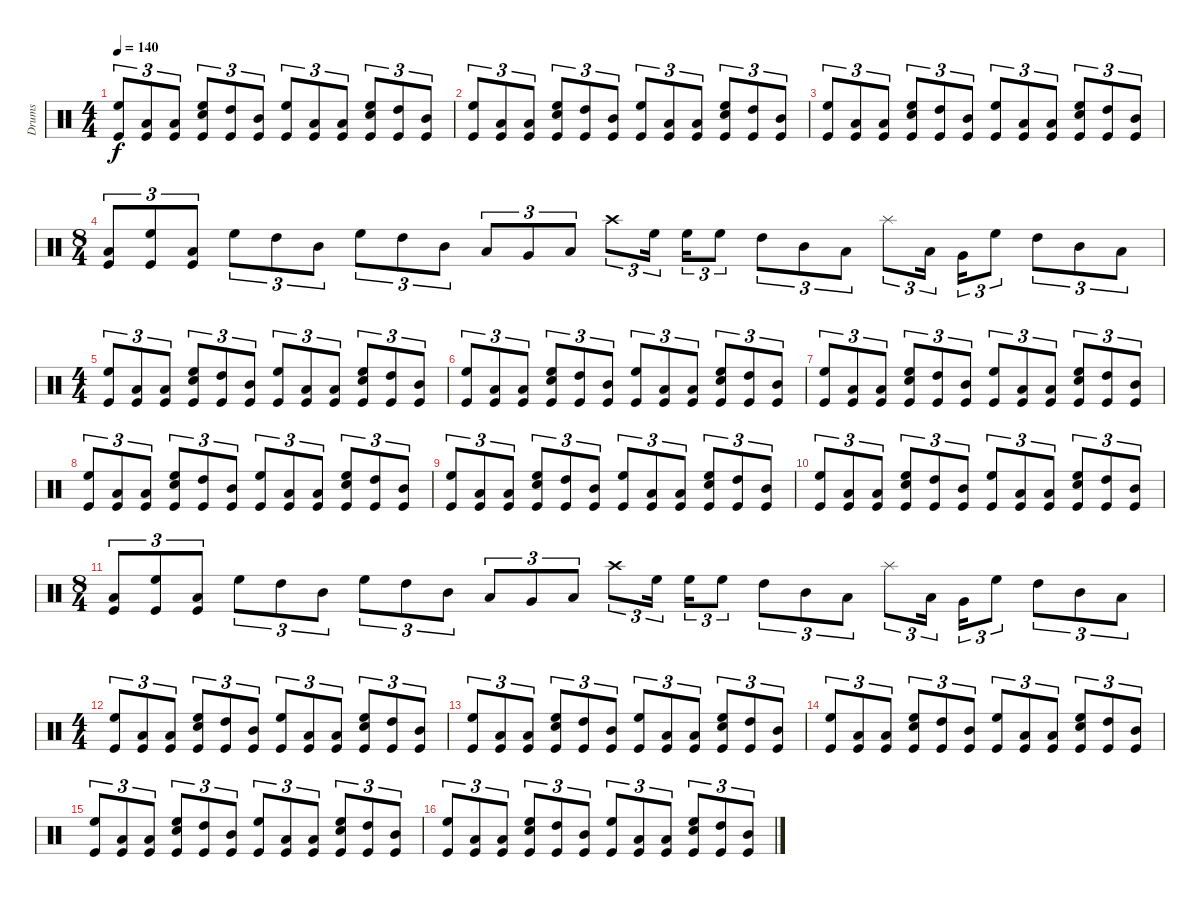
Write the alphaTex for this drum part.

\track ("Drums" "Drums") {instrument percussion}
\staff {score}
\articulation defaults
\ts (4 4)
\tempo 140
\clef neutral
\ks c
("High Floor Tom (hit)" "Kick (hit)").8{tu (3 2) dy f} ("Low Tom (hit)" "Kick (hit)").8{tu (3 2)} ("Low Floor Tom (hit)" "Kick (hit)").8{tu (3 2)} ("Snare (hit) 2" "High Floor Tom (hit)" "Kick (hit)").8{tu (3 2)} ("High Tom (hit)" "Kick (hit)").8{tu (3 2)} ("Mid Tom (hit)" "Kick (hit)").8{tu (3 2)} ("High Floor Tom (hit)" "Kick (hit)").8{tu (3 2)} ("Low Tom (hit)" "Kick (hit)").8{tu (3 2)} ("Low Floor Tom (hit)" "Kick (hit)").8{tu (3 2)} ("Snare (hit) 2" "High Floor Tom (hit)" "Kick (hit)").8{tu (3 2)} ("High Tom (hit)" "Kick (hit)").8{tu (3 2)} ("Mid Tom (hit)" "Kick (hit)").8{tu (3 2)} |
("High Floor Tom (hit)" "Kick (hit)").8{tu (3 2)} ("Low Tom (hit)" "Kick (hit)").8{tu (3 2)} ("Low Floor Tom (hit)" "Kick (hit)").8{tu (3 2)} ("Snare (hit) 2" "High Floor Tom (hit)" "Kick (hit)").8{tu (3 2)} ("High Tom (hit)" "Kick (hit)").8{tu (3 2)} ("Mid Tom (hit)" "Kick (hit)").8{tu (3 2)} ("High Floor Tom (hit)" "Kick (hit)").8{tu (3 2)} ("Low Tom (hit)" "Kick (hit)").8{tu (3 2)} ("Low Floor Tom (hit)" "Kick (hit)").8{tu (3 2)} ("Snare (hit) 2" "High Floor Tom (hit)" "Kick (hit)").8{tu (3 2)} ("High Tom (hit)" "Kick (hit)").8{tu (3 2)} ("Mid Tom (hit)" "Kick (hit)").8{tu (3 2)} |
("High Floor Tom (hit)" "Kick (hit)").8{tu (3 2)} ("Low Tom (hit)" "Kick (hit)").8{tu (3 2)} ("Low Floor Tom (hit)" "Kick (hit)").8{tu (3 2)} ("Snare (hit) 2" "High Floor Tom (hit)" "Kick (hit)").8{tu (3 2)} ("High Tom (hit)" "Kick (hit)").8{tu (3 2)} ("Mid Tom (hit)" "Kick (hit)").8{tu (3 2)} ("High Floor Tom (hit)" "Kick (hit)").8{tu (3 2)} ("Low Tom (hit)" "Kick (hit)").8{tu (3 2)} ("Low Floor Tom (hit)" "Kick (hit)").8{tu (3 2)} ("Snare (hit) 2" "High Floor Tom (hit)" "Kick (hit)").8{tu (3 2)} ("High Tom (hit)" "Kick (hit)").8{tu (3 2)} ("Mid Tom (hit)" "Kick (hit)").8{tu (3 2)} |
\ts (8 4)
("Low Floor Tom (hit)" "Kick (hit)").8{tu (3 2)} ("High Floor Tom (hit)" "Kick (hit)").8{tu (3 2)} ("Low Floor Tom (hit)" "Kick (hit)").8{tu (3 2)} "High Floor Tom (hit)".8{tu (3 2)} "High Tom (hit)".8{tu (3 2)} "Mid Tom (hit)".8{tu (3 2)} "High Floor Tom (hit)".8{tu (3 2)} "High Tom (hit)".8{tu (3 2)} "Mid Tom (hit)".8{tu (3 2)} "Low Tom (hit)".8{tu (3 2)} "Very Low Tom (hit)".8{tu (3 2)} "Low Floor Tom (hit)".8{tu (3 2)} "Crash high (hit)".8{tu (3 2)} "High Floor Tom (hit)".16{tu (3 2)} "High Floor Tom (hit)".16{tu (3 2)} "High Floor Tom (hit)".8{tu (3 2)} "High Tom (hit)".8{tu (3 2)} "Mid Tom (hit)".8{tu (3 2)} "Low Tom (hit)".8{tu (3 2)} "Splash (hit)".8{tu (3 2)} "Low Floor Tom (hit)".16{tu (3 2)} "Very Low Tom (hit)".16{tu (3 2)} "High Floor Tom (hit)".8{tu (3 2)} "High Tom (hit)".8{tu (3 2)} "Mid Tom (hit)".8{tu (3 2)} "Low Tom (hit)".8{tu (3 2)} |
\ts (4 4)
("High Floor Tom (hit)" "Kick (hit)").8{tu (3 2)} ("Low Tom (hit)" "Kick (hit)").8{tu (3 2)} ("Low Floor Tom (hit)" "Kick (hit)").8{tu (3 2)} ("Snare (hit) 2" "High Floor Tom (hit)" "Kick (hit)").8{tu (3 2)} ("High Tom (hit)" "Kick (hit)").8{tu (3 2)} ("Mid Tom (hit)" "Kick (hit)").8{tu (3 2)} ("High Floor Tom (hit)" "Kick (hit)").8{tu (3 2)} ("Low Tom (hit)" "Kick (hit)").8{tu (3 2)} ("Low Floor Tom (hit)" "Kick (hit)").8{tu (3 2)} ("Snare (hit) 2" "High Floor Tom (hit)" "Kick (hit)").8{tu (3 2)} ("High Tom (hit)" "Kick (hit)").8{tu (3 2)} ("Mid Tom (hit)" "Kick (hit)").8{tu (3 2)} |
("High Floor Tom (hit)" "Kick (hit)").8{tu (3 2)} ("Low Tom (hit)" "Kick (hit)").8{tu (3 2)} ("Low Floor Tom (hit)" "Kick (hit)").8{tu (3 2)} ("Snare (hit) 2" "High Floor Tom (hit)" "Kick (hit)").8{tu (3 2)} ("High Tom (hit)" "Kick (hit)").8{tu (3 2)} ("Mid Tom (hit)" "Kick (hit)").8{tu (3 2)} ("High Floor Tom (hit)" "Kick (hit)").8{tu (3 2)} ("Low Tom (hit)" "Kick (hit)").8{tu (3 2)} ("Low Floor Tom (hit)" "Kick (hit)").8{tu (3 2)} ("Snare (hit) 2" "High Floor Tom (hit)" "Kick (hit)").8{tu (3 2)} ("High Tom (hit)" "Kick (hit)").8{tu (3 2)} ("Mid Tom (hit)" "Kick (hit)").8{tu (3 2)} |
("High Floor Tom (hit)" "Kick (hit)").8{tu (3 2)} ("Low Tom (hit)" "Kick (hit)").8{tu (3 2)} ("Low Floor Tom (hit)" "Kick (hit)").8{tu (3 2)} ("Snare (hit) 2" "High Floor Tom (hit)" "Kick (hit)").8{tu (3 2)} ("High Tom (hit)" "Kick (hit)").8{tu (3 2)} ("Mid Tom (hit)" "Kick (hit)").8{tu (3 2)} ("High Floor Tom (hit)" "Kick (hit)").8{tu (3 2)} ("Low Tom (hit)" "Kick (hit)").8{tu (3 2)} ("Low Floor Tom (hit)" "Kick (hit)").8{tu (3 2)} ("Snare (hit) 2" "High Floor Tom (hit)" "Kick (hit)").8{tu (3 2)} ("High Tom (hit)" "Kick (hit)").8{tu (3 2)} ("Mid Tom (hit)" "Kick (hit)").8{tu (3 2)} |
("High Floor Tom (hit)" "Kick (hit)").8{tu (3 2)} ("Low Tom (hit)" "Kick (hit)").8{tu (3 2)} ("Low Floor Tom (hit)" "Kick (hit)").8{tu (3 2)} ("Snare (hit) 2" "High Floor Tom (hit)" "Kick (hit)").8{tu (3 2)} ("High Tom (hit)" "Kick (hit)").8{tu (3 2)} ("Mid Tom (hit)" "Kick (hit)").8{tu (3 2)} ("High Floor Tom (hit)" "Kick (hit)").8{tu (3 2)} ("Low Tom (hit)" "Kick (hit)").8{tu (3 2)} ("Low Floor Tom (hit)" "Kick (hit)").8{tu (3 2)} ("Snare (hit) 2" "High Floor Tom (hit)" "Kick (hit)").8{tu (3 2)} ("High Tom (hit)" "Kick (hit)").8{tu (3 2)} ("Mid Tom (hit)" "Kick (hit)").8{tu (3 2)} |
("High Floor Tom (hit)" "Kick (hit)").8{tu (3 2)} ("Low Tom (hit)" "Kick (hit)").8{tu (3 2)} ("Low Floor Tom (hit)" "Kick (hit)").8{tu (3 2)} ("Snare (hit) 2" "High Floor Tom (hit)" "Kick (hit)").8{tu (3 2)} ("High Tom (hit)" "Kick (hit)").8{tu (3 2)} ("Mid Tom (hit)" "Kick (hit)").8{tu (3 2)} ("High Floor Tom (hit)" "Kick (hit)").8{tu (3 2)} ("Low Tom (hit)" "Kick (hit)").8{tu (3 2)} ("Low Floor Tom (hit)" "Kick (hit)").8{tu (3 2)} ("Snare (hit) 2" "High Floor Tom (hit)" "Kick (hit)").8{tu (3 2)} ("High Tom (hit)" "Kick (hit)").8{tu (3 2)} ("Mid Tom (hit)" "Kick (hit)").8{tu (3 2)} |
("High Floor Tom (hit)" "Kick (hit)").8{tu (3 2)} ("Low Tom (hit)" "Kick (hit)").8{tu (3 2)} ("Low Floor Tom (hit)" "Kick (hit)").8{tu (3 2)} ("Snare (hit) 2" "High Floor Tom (hit)" "Kick (hit)").8{tu (3 2)} ("High Tom (hit)" "Kick (hit)").8{tu (3 2)} ("Mid Tom (hit)" "Kick (hit)").8{tu (3 2)} ("High Floor Tom (hit)" "Kick (hit)").8{tu (3 2)} ("Low Tom (hit)" "Kick (hit)").8{tu (3 2)} ("Low Floor Tom (hit)" "Kick (hit)").8{tu (3 2)} ("Snare (hit) 2" "High Floor Tom (hit)" "Kick (hit)").8{tu (3 2)} ("High Tom (hit)" "Kick (hit)").8{tu (3 2)} ("Mid Tom (hit)" "Kick (hit)").8{tu (3 2)} |
\ts (8 4)
("Low Floor Tom (hit)" "Kick (hit)").8{tu (3 2)} ("High Floor Tom (hit)" "Kick (hit)").8{tu (3 2)} ("Low Floor Tom (hit)" "Kick (hit)").8{tu (3 2)} "High Floor Tom (hit)".8{tu (3 2)} "High Tom (hit)".8{tu (3 2)} "Mid Tom (hit)".8{tu (3 2)} "High Floor Tom (hit)".8{tu (3 2)} "High Tom (hit)".8{tu (3 2)} "Mid Tom (hit)".8{tu (3 2)} "Low Tom (hit)".8{tu (3 2)} "Very Low Tom (hit)".8{tu (3 2)} "Low Floor Tom (hit)".8{tu (3 2)} "Crash high (hit)".8{tu (3 2)} "High Floor Tom (hit)".16{tu (3 2)} "High Floor Tom (hit)".16{tu (3 2)} "High Floor Tom (hit)".8{tu (3 2)} "High Tom (hit)".8{tu (3 2)} "Mid Tom (hit)".8{tu (3 2)} "Low Tom (hit)".8{tu (3 2)} "Splash (hit)".8{tu (3 2)} "Low Floor Tom (hit)".16{tu (3 2)} "Very Low Tom (hit)".16{tu (3 2)} "High Floor Tom (hit)".8{tu (3 2)} "High Tom (hit)".8{tu (3 2)} "Mid Tom (hit)".8{tu (3 2)} "Low Tom (hit)".8{tu (3 2)} |
\ts (4 4)
("High Floor Tom (hit)" "Kick (hit)").8{tu (3 2)} ("Low Tom (hit)" "Kick (hit)").8{tu (3 2)} ("Low Floor Tom (hit)" "Kick (hit)").8{tu (3 2)} ("Snare (hit) 2" "High Floor Tom (hit)" "Kick (hit)").8{tu (3 2)} ("High Tom (hit)" "Kick (hit)").8{tu (3 2)} ("Mid Tom (hit)" "Kick (hit)").8{tu (3 2)} ("High Floor Tom (hit)" "Kick (hit)").8{tu (3 2)} ("Low Tom (hit)" "Kick (hit)").8{tu (3 2)} ("Low Floor Tom (hit)" "Kick (hit)").8{tu (3 2)} ("Snare (hit) 2" "High Floor Tom (hit)" "Kick (hit)").8{tu (3 2)} ("High Tom (hit)" "Kick (hit)").8{tu (3 2)} ("Mid Tom (hit)" "Kick (hit)").8{tu (3 2)} |
("High Floor Tom (hit)" "Kick (hit)").8{tu (3 2)} ("Low Tom (hit)" "Kick (hit)").8{tu (3 2)} ("Low Floor Tom (hit)" "Kick (hit)").8{tu (3 2)} ("Snare (hit) 2" "High Floor Tom (hit)" "Kick (hit)").8{tu (3 2)} ("High Tom (hit)" "Kick (hit)").8{tu (3 2)} ("Mid Tom (hit)" "Kick (hit)").8{tu (3 2)} ("High Floor Tom (hit)" "Kick (hit)").8{tu (3 2)} ("Low Tom (hit)" "Kick (hit)").8{tu (3 2)} ("Low Floor Tom (hit)" "Kick (hit)").8{tu (3 2)} ("Snare (hit) 2" "High Floor Tom (hit)" "Kick (hit)").8{tu (3 2)} ("High Tom (hit)" "Kick (hit)").8{tu (3 2)} ("Mid Tom (hit)" "Kick (hit)").8{tu (3 2)} |
("High Floor Tom (hit)" "Kick (hit)").8{tu (3 2)} ("Low Tom (hit)" "Kick (hit)").8{tu (3 2)} ("Low Floor Tom (hit)" "Kick (hit)").8{tu (3 2)} ("Snare (hit) 2" "High Floor Tom (hit)" "Kick (hit)").8{tu (3 2)} ("High Tom (hit)" "Kick (hit)").8{tu (3 2)} ("Mid Tom (hit)" "Kick (hit)").8{tu (3 2)} ("High Floor Tom (hit)" "Kick (hit)").8{tu (3 2)} ("Low Tom (hit)" "Kick (hit)").8{tu (3 2)} ("Low Floor Tom (hit)" "Kick (hit)").8{tu (3 2)} ("Snare (hit) 2" "High Floor Tom (hit)" "Kick (hit)").8{tu (3 2)} ("High Tom (hit)" "Kick (hit)").8{tu (3 2)} ("Mid Tom (hit)" "Kick (hit)").8{tu (3 2)} |
("High Floor Tom (hit)" "Kick (hit)").8{tu (3 2)} ("Low Tom (hit)" "Kick (hit)").8{tu (3 2)} ("Low Floor Tom (hit)" "Kick (hit)").8{tu (3 2)} ("Snare (hit) 2" "High Floor Tom (hit)" "Kick (hit)").8{tu (3 2)} ("High Tom (hit)" "Kick (hit)").8{tu (3 2)} ("Mid Tom (hit)" "Kick (hit)").8{tu (3 2)} ("High Floor Tom (hit)" "Kick (hit)").8{tu (3 2)} ("Low Tom (hit)" "Kick (hit)").8{tu (3 2)} ("Low Floor Tom (hit)" "Kick (hit)").8{tu (3 2)} ("Snare (hit) 2" "High Floor Tom (hit)" "Kick (hit)").8{tu (3 2)} ("High Tom (hit)" "Kick (hit)").8{tu (3 2)} ("Mid Tom (hit)" "Kick (hit)").8{tu (3 2)} |
("High Floor Tom (hit)" "Kick (hit)").8{tu (3 2)} ("Low Tom (hit)" "Kick (hit)").8{tu (3 2)} ("Low Floor Tom (hit)" "Kick (hit)").8{tu (3 2)} ("Snare (hit) 2" "High Floor Tom (hit)" "Kick (hit)").8{tu (3 2)} ("High Tom (hit)" "Kick (hit)").8{tu (3 2)} ("Mid Tom (hit)" "Kick (hit)").8{tu (3 2)} ("High Floor Tom (hit)" "Kick (hit)").8{tu (3 2)} ("Low Tom (hit)" "Kick (hit)").8{tu (3 2)} ("Low Floor Tom (hit)" "Kick (hit)").8{tu (3 2)} ("Snare (hit) 2" "High Floor Tom (hit)" "Kick (hit)").8{tu (3 2)} ("High Tom (hit)" "Kick (hit)").8{tu (3 2)} ("Mid Tom (hit)" "Kick (hit)").8{tu (3 2)}
